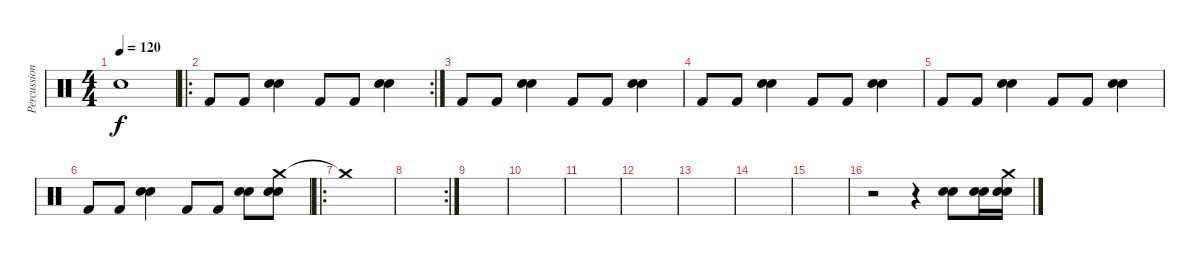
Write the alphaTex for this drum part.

\track ("Percussions" "Percussion") {instrument percussion}
\staff {score}
\articulation defaults
\ts (4 4)
\tempo 120
\clef neutral
\ks c "Snare (hit)".1{dy f}
|
\ro
\rc 2 "Kick (hit) 2".8 "Kick (hit) 2".8
("Hand Clap (hit)" "Electric Snare (hit)").4 "Kick (hit) 2".8 "Kick (hit) 2".8 ("Hand Clap (hit)" "Electric Snare (hit)").4 |
"Kick (hit) 2".8 "Kick (hit) 2".8 ("Hand Clap (hit)" "Electric Snare (hit)").4 "Kick (hit) 2".8 "Kick (hit) 2".8 ("Hand Clap (hit)" "Electric Snare (hit)").4 |
"Kick (hit) 2".8 "Kick (hit) 2".8 ("Hand Clap (hit)" "Electric Snare (hit)").4 "Kick (hit) 2".8 "Kick (hit) 2".8 ("Hand Clap (hit)" "Electric Snare (hit)").4 |
"Kick (hit) 2".8 "Kick (hit) 2".8 ("Hand Clap (hit)" "Electric Snare (hit)").4 "Kick (hit) 2".8 "Kick (hit) 2".8 ("Hand Clap (hit)" "Electric Snare (hit)").4 |
"Kick (hit) 2".8 "Kick (hit) 2".8 ("Hand Clap (hit)" "Electric Snare (hit)").4 "Kick (hit) 2".8 "Kick (hit) 2".8 ("Hand Clap (hit)" "Electric Snare (hit)").8 ("Crash medium (hit)" "Hand Clap (hit)" "Electric Snare (hit)").8 |
\ro "Crash medium (hit)"{t}.1
|
\rc 2
|
|
|
|
|
|
|
|
r.2 r.4 ("Hand Clap (hit)" "Electric Snare (hit)").8 ("Hand Clap (hit)" "Electric Snare (hit)").16 ("Crash medium (hit)" "Hand Clap (hit)" "Electric Snare (hit)").16
